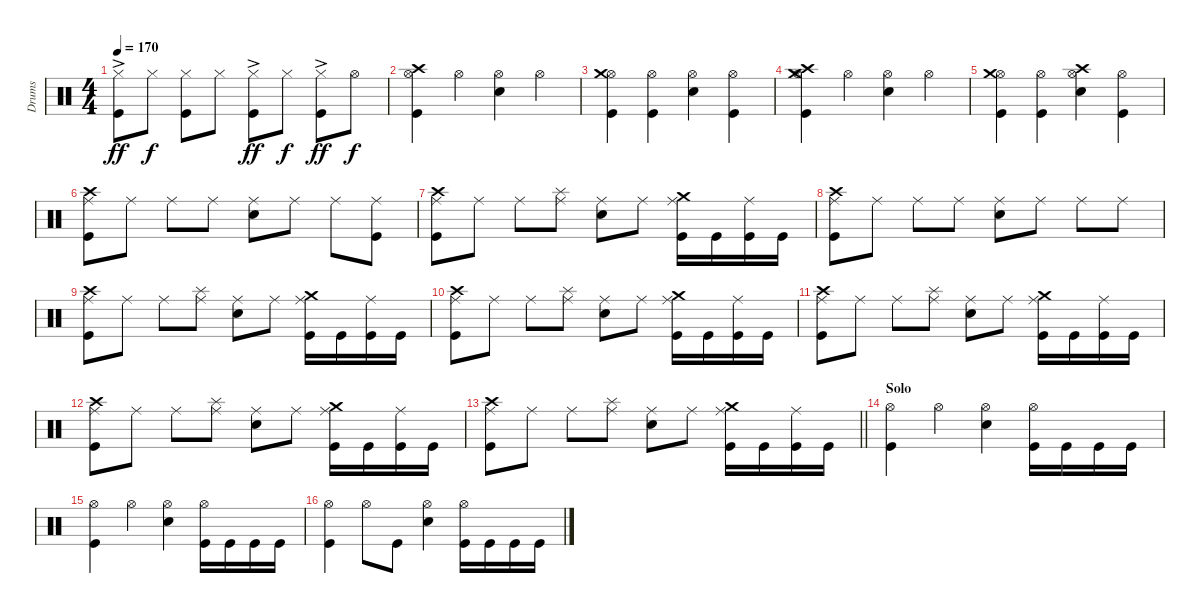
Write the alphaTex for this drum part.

\track ("Drums" "Drums") {instrument percussion}
\staff {score}
\articulation defaults
\ts (4 4)
\tempo 170
\clef neutral
\ks c
("Hi-Hat (closed)"{ac} "Kick (hit)").8{dy ff} "Hi-Hat (closed)".8{dy f} ("Hi-Hat (closed)" "Kick (hit)").8 "Hi-Hat (closed)".8 ("Hi-Hat (closed)"{ac} "Kick (hit)").8{dy ff} "Hi-Hat (closed)".8{dy f} ("Hi-Hat (closed)"{ac} "Kick (hit)").8{dy ff} "Hi-Hat (open)".8{dy f} |
("Hi-Hat (open)" "Crash high (hit)" "Kick (hit)").4 "Hi-Hat (open)".4 ("Hi-Hat (open)" "Snare (hit) 2").4 "Hi-Hat (open)".4 |
("Hi-Hat (open)" "Crash medium (hit)" "Kick (hit)").4 ("Hi-Hat (open)" "Kick (hit)").4 ("Hi-Hat (open)" "Snare (hit) 2").4 ("Hi-Hat (open)" "Kick (hit)").4 |
("Hi-Hat (open)" "Crash high (hit)" "Crash medium (hit)" "Kick (hit)").4 "Hi-Hat (open)".4 ("Hi-Hat (open)" "Snare (hit) 2").4 "Hi-Hat (open)".4 |
("Hi-Hat (open)" "Crash medium (hit)" "Kick (hit)").4 ("Hi-Hat (open)" "Kick (hit)").4 ("Hi-Hat (open)" "Crash high (hit)" "Snare (hit) 2").4 ("Hi-Hat (open)" "Kick (hit)").4 |
("Ride (middle)" "Crash high (hit)" "Kick (hit)").8 "Ride (middle)".8 "Ride (middle)".8 "Ride (middle)".8 ("Ride (middle)" "Snare (hit) 2").8 "Ride (middle)".8 "Ride (middle)".8 ("Ride (middle)" "Kick (hit)").8 |
("Ride (middle)" "Crash high (hit)" "Kick (hit)").8 "Ride (middle)".8 "Ride (middle)".8 ("Ride (middle)" "Splash (hit)").8 ("Ride (middle)" "Snare (hit) 2").8 "Ride (middle)".8 ("Ride (middle)" "Crash medium (hit)" "Kick (hit)").16 "Kick (hit)".16 ("Ride (middle)" "Kick (hit)").16 "Kick (hit)".16 |
("Ride (middle)" "Crash high (hit)" "Kick (hit)").8 "Ride (middle)".8 "Ride (middle)".8 "Ride (middle)".8 ("Ride (middle)" "Snare (hit) 2").8 "Ride (middle)".8 "Ride (middle)".8 "Ride (middle)".8 |
("Ride (middle)" "Crash high (hit)" "Kick (hit)").8 "Ride (middle)".8 "Ride (middle)".8 ("Ride (middle)" "Splash (hit)").8 ("Ride (middle)" "Snare (hit) 2").8 "Ride (middle)".8 ("Ride (middle)" "Crash medium (hit)" "Kick (hit)").16 "Kick (hit)".16 ("Ride (middle)" "Kick (hit)").16 "Kick (hit)".16 |
("Ride (middle)" "Crash high (hit)" "Kick (hit)").8 "Ride (middle)".8 "Ride (middle)".8 ("Ride (middle)" "Splash (hit)").8 ("Ride (middle)" "Snare (hit) 2").8 "Ride (middle)".8 ("Ride (middle)" "Crash medium (hit)" "Kick (hit)").16 "Kick (hit)".16 ("Ride (middle)" "Kick (hit)").16 "Kick (hit)".16 |
("Ride (middle)" "Crash high (hit)" "Kick (hit)").8 "Ride (middle)".8 "Ride (middle)".8 ("Ride (middle)" "Splash (hit)").8 ("Ride (middle)" "Snare (hit) 2").8 "Ride (middle)".8 ("Ride (middle)" "Crash medium (hit)" "Kick (hit)").16 "Kick (hit)".16 ("Ride (middle)" "Kick (hit)").16 "Kick (hit)".16 |
("Ride (middle)" "Crash high (hit)" "Kick (hit)").8 "Ride (middle)".8 "Ride (middle)".8 ("Ride (middle)" "Splash (hit)").8 ("Ride (middle)" "Snare (hit) 2").8 "Ride (middle)".8 ("Ride (middle)" "Crash medium (hit)" "Kick (hit)").16 "Kick (hit)".16 ("Ride (middle)" "Kick (hit)").16 "Kick (hit)".16 |
\barLineRight lightlight
("Ride (middle)" "Crash high (hit)" "Kick (hit)").8 "Ride (middle)".8 "Ride (middle)".8 ("Ride (middle)" "Splash (hit)").8 ("Ride (middle)" "Snare (hit) 2").8 "Ride (middle)".8 ("Ride (middle)" "Crash medium (hit)" "Kick (hit)").16 "Kick (hit)".16 ("Ride (middle)" "Kick (hit)").16 "Kick (hit)".16 |
\section ("" "Solo")
("Hi-Hat (open)" "Kick (hit)").4 "Hi-Hat (open)".4 ("Hi-Hat (open)" "Snare (hit) 2").4 ("Hi-Hat (open)" "Kick (hit)").16 "Kick (hit)".16 "Kick (hit)".16 "Kick (hit)".16 |
("Hi-Hat (open)" "Kick (hit)").4 "Hi-Hat (open)".4 ("Hi-Hat (open)" "Snare (hit) 2").4 ("Hi-Hat (open)" "Kick (hit)").16 "Kick (hit)".16 "Kick (hit)".16 "Kick (hit)".16 |
("Hi-Hat (open)" "Kick (hit)").4 "Hi-Hat (open)".8 "Kick (hit)".8 ("Hi-Hat (open)" "Snare (hit) 2").4 ("Hi-Hat (open)" "Kick (hit)").16 "Kick (hit)".16 "Kick (hit)".16 "Kick (hit)".16
